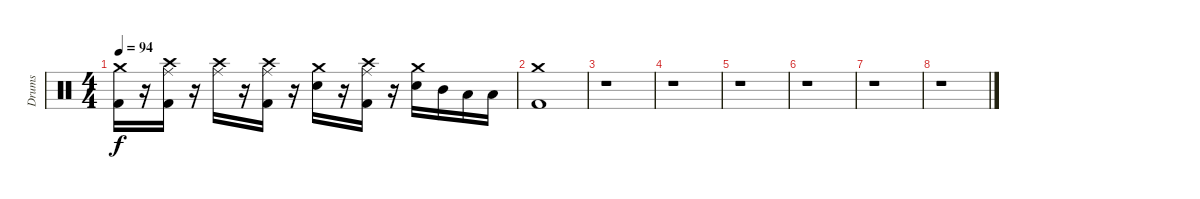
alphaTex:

\track ("Drums" "Drums") {instrument percussion}
\staff {score}
\articulation defaults
\ts (4 4)
\tempo 94
\clef neutral
\ks c
("Crash medium (hit)" "Kick (hit) 2").16{dy f} r.16 ("Ride (middle)" "Crash high (hit)" "Kick (hit) 2").16 r.16 ("Ride (middle)" "Crash high (hit)").16 r.16 ("Ride (middle)" "Crash high (hit)" "Kick (hit) 2").16 r.16 ("Crash medium (hit)" "Electric Snare (hit)").16 r.16 ("Ride (middle)" "Crash high (hit)" "Kick (hit) 2").16 r.16 ("Crash medium (hit)" "Electric Snare (hit)").16 "Mid Tom (hit)".16 "Low Tom (hit)".16 "Low Floor Tom (hit)".16 |
("Crash medium (hit)" "Kick (hit) 2").1 |
r.1 |
r.1 |
r.1 |
r.1 |
r.1 |
r.1
